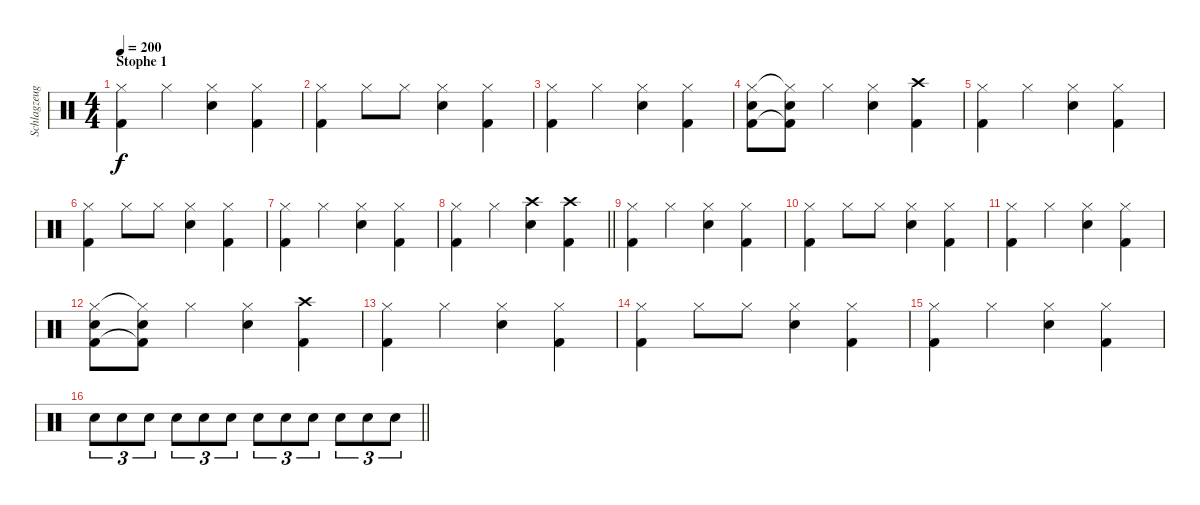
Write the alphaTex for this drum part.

\track ("Schlagzeug" "Schlagzeug") {instrument percussion}
\staff {score}
\articulation defaults
\ts (4 4)
\section ("" "Stophe 1")
\tempo 200
\clef neutral
\ks c
("Hi-Hat (closed)" "Kick (hit) 2").4{dy f} "Hi-Hat (closed)".4 ("Hi-Hat (closed)" "Snare (hit) 2").4 ("Hi-Hat (closed)" "Kick (hit) 2").4 |
("Hi-Hat (closed)" "Kick (hit) 2").4 "Hi-Hat (closed)".8 "Hi-Hat (closed)".8 ("Hi-Hat (closed)" "Snare (hit) 2").4 ("Hi-Hat (closed)" "Kick (hit) 2").4 |
("Hi-Hat (closed)" "Kick (hit) 2").4 "Hi-Hat (closed)".4 ("Hi-Hat (closed)" "Snare (hit) 2").4 ("Hi-Hat (closed)" "Kick (hit) 2").4 |
("Hi-Hat (closed)" "Snare (hit) 2" "Kick (hit) 2").8 ("Hi-Hat (closed)"{t} "Snare (hit) 2" "Kick (hit) 2"{t}).8 "Hi-Hat (closed)".4 ("Hi-Hat (closed)" "Snare (hit) 2").4 ("Crash high (hit)" "Kick (hit) 2").4 |
("Hi-Hat (closed)" "Kick (hit) 2").4 "Hi-Hat (closed)".4 ("Hi-Hat (closed)" "Snare (hit) 2").4 ("Hi-Hat (closed)" "Kick (hit) 2").4 |
("Hi-Hat (closed)" "Kick (hit) 2").4 "Hi-Hat (closed)".8 "Hi-Hat (closed)".8 ("Hi-Hat (closed)" "Snare (hit) 2").4 ("Hi-Hat (closed)" "Kick (hit) 2").4 |
("Hi-Hat (closed)" "Kick (hit) 2").4 "Hi-Hat (closed)".4 ("Hi-Hat (closed)" "Snare (hit) 2").4 ("Hi-Hat (closed)" "Kick (hit) 2").4 |
\barLineRight lightlight
("Hi-Hat (closed)" "Kick (hit) 2").4 "Hi-Hat (closed)".4 ("Crash high (hit)" "Snare (hit) 2").4 ("Crash high (hit)" "Kick (hit) 2").4 |
("Hi-Hat (closed)" "Kick (hit) 2").4 "Hi-Hat (closed)".4 ("Hi-Hat (closed)" "Snare (hit) 2").4 ("Hi-Hat (closed)" "Kick (hit) 2").4 |
("Hi-Hat (closed)" "Kick (hit) 2").4 "Hi-Hat (closed)".8 "Hi-Hat (closed)".8 ("Hi-Hat (closed)" "Snare (hit) 2").4 ("Hi-Hat (closed)" "Kick (hit) 2").4 |
("Hi-Hat (closed)" "Kick (hit) 2").4 "Hi-Hat (closed)".4 ("Hi-Hat (closed)" "Snare (hit) 2").4 ("Hi-Hat (closed)" "Kick (hit) 2").4 |
("Hi-Hat (closed)" "Snare (hit) 2" "Kick (hit) 2").8 ("Hi-Hat (closed)"{t} "Snare (hit) 2" "Kick (hit) 2"{t}).8 "Hi-Hat (closed)".4 ("Hi-Hat (closed)" "Snare (hit) 2").4 ("Crash high (hit)" "Kick (hit) 2").4 |
("Hi-Hat (closed)" "Kick (hit) 2").4 "Hi-Hat (closed)".4 ("Hi-Hat (closed)" "Snare (hit) 2").4 ("Hi-Hat (closed)" "Kick (hit) 2").4 |
("Hi-Hat (closed)" "Kick (hit) 2").4 "Hi-Hat (closed)".8 "Hi-Hat (closed)".8 ("Hi-Hat (closed)" "Snare (hit) 2").4 ("Hi-Hat (closed)" "Kick (hit) 2").4 |
("Hi-Hat (closed)" "Kick (hit) 2").4 "Hi-Hat (closed)".4 ("Hi-Hat (closed)" "Snare (hit) 2").4 ("Hi-Hat (closed)" "Kick (hit) 2").4 |
\barLineRight lightlight "Electric Snare (hit)".8{tu (3 2)} "Electric Snare (hit)".8{tu (3 2)} "Electric Snare (hit)".8{tu (3 2)} "Electric Snare (hit)".8{tu (3 2)} "Electric Snare (hit)".8{tu (3 2)} "Electric Snare (hit)".8{tu (3 2)} "Snare (hit) 2".8{tu (3 2)} "Snare (hit) 2".8{tu (3 2)} "Snare (hit) 2".8{tu (3 2)} "Snare (hit) 2".8{tu (3 2)} "Snare (hit) 2".8{tu (3 2)} "Snare (hit) 2".8{tu (3 2)}
